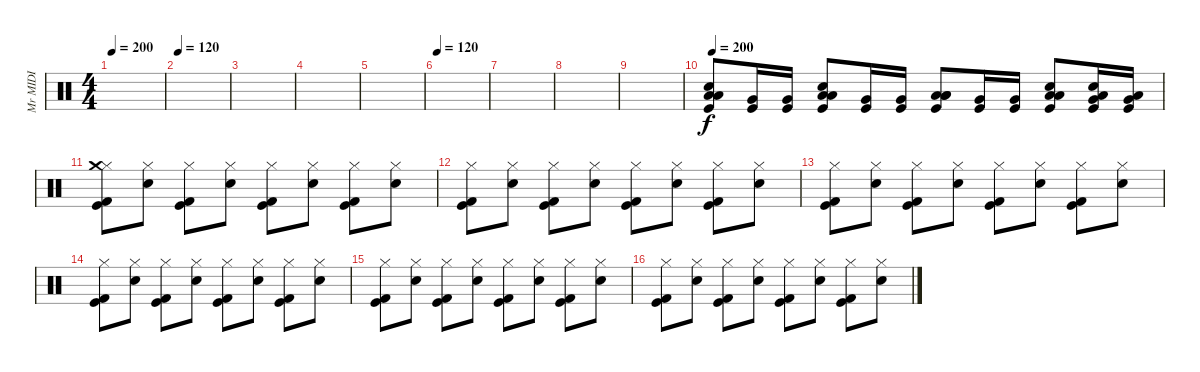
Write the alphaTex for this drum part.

\track ("Mr MIDI" "Mr MIDI") {instrument percussion}
\staff {score}
\articulation defaults
\ts (4 4)
\tempo 200
\clef neutral
\ks c
|
\tempo 100
\tempo 120
|
|
|
|
\tempo 100
\tempo 120
|
|
|
|
\tempo 200
("Kick (hit)" "Low Tom (hit)" "Electric Snare (hit)" "Low Floor Tom (hit)").8 ("Kick (hit)" "Very Low Tom (hit)").16 ("Kick (hit)" "Very Low Tom (hit)").16 ("Kick (hit)" "Low Tom (hit)" "Electric Snare (hit)" "Low Floor Tom (hit)").8 ("Kick (hit)" "Very Low Tom (hit)").16 ("Kick (hit)" "Very Low Tom (hit)").16 ("Kick (hit)" "Low Tom (hit)" "Low Floor Tom (hit)" "Low Floor Tom (hit)").8 ("Kick (hit)" "Very Low Tom (hit)").16 ("Kick (hit)" "Very Low Tom (hit)").16 ("Kick (hit)" "Low Tom (hit)" "Electric Snare (hit)" "Low Floor Tom (hit)").8 ("Kick (hit)" "Very Low Tom (hit)" "Electric Snare (hit)" "Low Floor Tom (hit)").16 ("Kick (hit)" "Very Low Tom (hit)" "Low Floor Tom (hit)").16 |
("Hi-Hat (closed)" "Kick (hit) 2" "Kick (hit)" "Crash medium (hit)").8 ("Hi-Hat (closed)" "Electric Snare (hit)").8 ("Hi-Hat (closed)" "Kick (hit) 2" "Kick (hit)").8 ("Hi-Hat (closed)" "Electric Snare (hit)").8 ("Hi-Hat (closed)" "Kick (hit) 2" "Kick (hit)").8 ("Hi-Hat (closed)" "Electric Snare (hit)").8 ("Hi-Hat (closed)" "Kick (hit) 2" "Kick (hit)").8 ("Hi-Hat (closed)" "Electric Snare (hit)").8 |
("Hi-Hat (closed)" "Kick (hit) 2" "Kick (hit)").8 ("Hi-Hat (closed)" "Electric Snare (hit)").8 ("Hi-Hat (closed)" "Kick (hit) 2" "Kick (hit)").8 ("Hi-Hat (closed)" "Electric Snare (hit)").8 ("Hi-Hat (closed)" "Kick (hit) 2" "Kick (hit)").8 ("Hi-Hat (closed)" "Electric Snare (hit)").8 ("Hi-Hat (closed)" "Kick (hit) 2" "Kick (hit)").8 ("Hi-Hat (closed)" "Electric Snare (hit)").8 |
("Hi-Hat (closed)" "Kick (hit) 2" "Kick (hit)").8 ("Hi-Hat (closed)" "Electric Snare (hit)").8 ("Hi-Hat (closed)" "Kick (hit) 2" "Kick (hit)").8 ("Hi-Hat (closed)" "Electric Snare (hit)").8 ("Hi-Hat (closed)" "Kick (hit) 2" "Kick (hit)").8 ("Hi-Hat (closed)" "Electric Snare (hit)").8 ("Hi-Hat (closed)" "Kick (hit) 2" "Kick (hit)").8 ("Hi-Hat (closed)" "Electric Snare (hit)").8 |
("Hi-Hat (closed)" "Kick (hit) 2" "Kick (hit)").8 ("Hi-Hat (closed)" "Electric Snare (hit)").8 ("Hi-Hat (closed)" "Kick (hit) 2" "Kick (hit)").8 ("Hi-Hat (closed)" "Electric Snare (hit)").8 ("Hi-Hat (closed)" "Kick (hit) 2" "Kick (hit)").8 ("Hi-Hat (closed)" "Electric Snare (hit)").8 ("Hi-Hat (closed)" "Kick (hit) 2" "Kick (hit)").8 ("Hi-Hat (closed)" "Electric Snare (hit)").8 |
("Hi-Hat (closed)" "Kick (hit) 2" "Kick (hit)").8 ("Hi-Hat (closed)" "Electric Snare (hit)").8 ("Hi-Hat (closed)" "Kick (hit) 2" "Kick (hit)").8 ("Hi-Hat (closed)" "Electric Snare (hit)").8 ("Hi-Hat (closed)" "Kick (hit) 2" "Kick (hit)").8 ("Hi-Hat (closed)" "Electric Snare (hit)").8 ("Hi-Hat (closed)" "Kick (hit) 2" "Kick (hit)").8 ("Hi-Hat (closed)" "Electric Snare (hit)").8 |
("Hi-Hat (closed)" "Kick (hit) 2" "Kick (hit)").8 ("Hi-Hat (closed)" "Electric Snare (hit)").8 ("Hi-Hat (closed)" "Kick (hit) 2" "Kick (hit)").8 ("Hi-Hat (closed)" "Electric Snare (hit)").8 ("Hi-Hat (closed)" "Kick (hit) 2" "Kick (hit)").8 ("Hi-Hat (closed)" "Electric Snare (hit)").8 ("Hi-Hat (closed)" "Kick (hit) 2" "Kick (hit)").8 ("Hi-Hat (closed)" "Electric Snare (hit)").8
